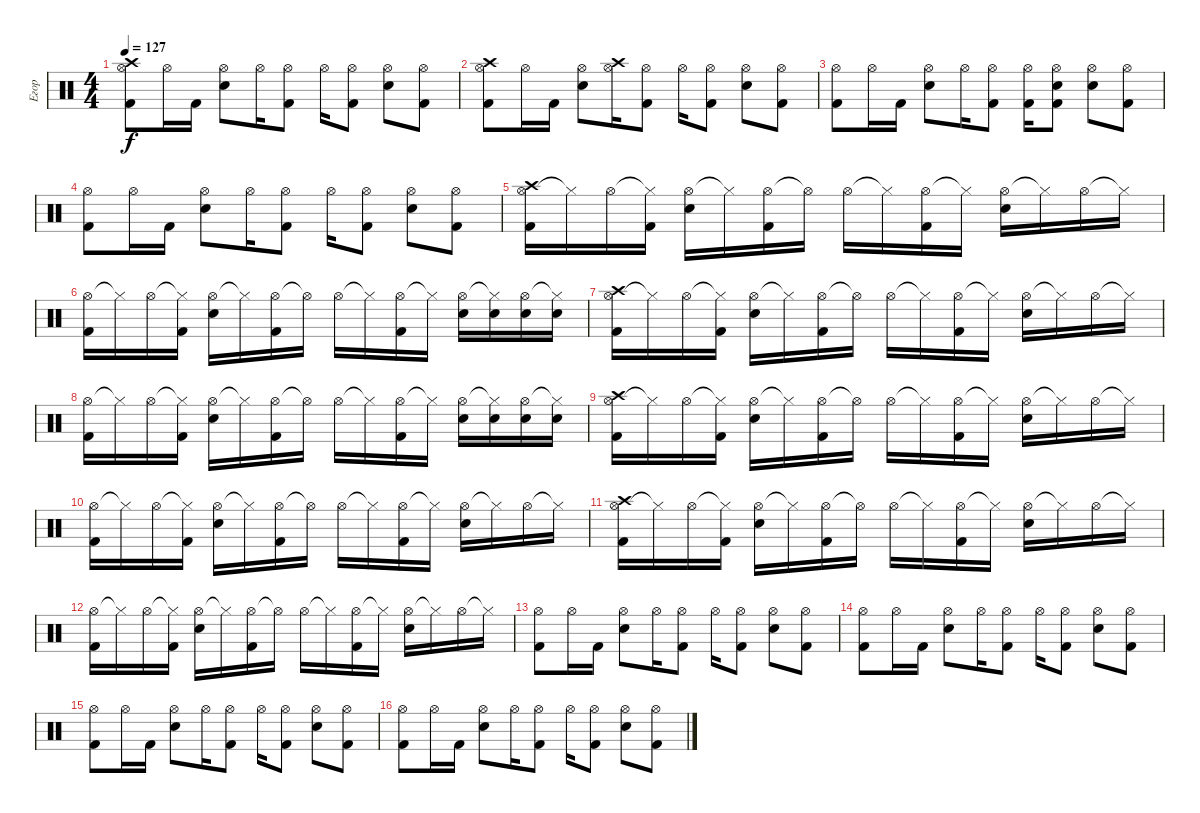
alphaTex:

\track ("Егор" "Егор") {instrument percussion}
\staff {score}
\articulation defaults
\ts (4 4)
\tempo 127
\clef neutral
\ks c
("Hi-Hat (open)" "Crash high (hit)" "Kick (hit) 2").8{dy f} "Hi-Hat (open)".16 "Kick (hit) 2".16 ("Hi-Hat (open)" "Electric Snare (hit)").8 "Hi-Hat (open)".16 ("Hi-Hat (open)" "Kick (hit) 2").8 "Hi-Hat (open)".16 ("Hi-Hat (open)" "Kick (hit) 2").8 ("Hi-Hat (open)" "Electric Snare (hit)").8 ("Hi-Hat (open)" "Kick (hit) 2").8 |
("Hi-Hat (open)" "Crash high (hit)" "Kick (hit) 2").8 "Hi-Hat (open)".16 "Kick (hit) 2".16 ("Hi-Hat (open)" "Electric Snare (hit)").8 ("Hi-Hat (open)" "Crash high (hit)").16 ("Hi-Hat (open)" "Kick (hit) 2").8 "Hi-Hat (open)".16 ("Hi-Hat (open)" "Kick (hit) 2").8 ("Hi-Hat (open)" "Electric Snare (hit)").8 ("Hi-Hat (open)" "Kick (hit) 2").8 |
("Hi-Hat (open)" "Kick (hit) 2").8 "Hi-Hat (open)".16 "Kick (hit) 2".16 ("Hi-Hat (open)" "Electric Snare (hit)").8 "Hi-Hat (open)".16 ("Hi-Hat (open)" "Kick (hit) 2").8 ("Hi-Hat (open)" "Kick (hit) 2").16 ("Hi-Hat (open)" "Electric Snare (hit)" "Kick (hit) 2").8 ("Hi-Hat (open)" "Electric Snare (hit)").8 ("Hi-Hat (open)" "Kick (hit) 2").8 |
("Hi-Hat (open)" "Kick (hit) 2").8 "Hi-Hat (open)".16 "Kick (hit) 2".16 ("Hi-Hat (open)" "Electric Snare (hit)").8 "Hi-Hat (open)".16 ("Hi-Hat (open)" "Kick (hit) 2").8 "Hi-Hat (open)".16 ("Hi-Hat (open)" "Kick (hit) 2").8 ("Hi-Hat (open)" "Electric Snare (hit)").8 ("Hi-Hat (open)" "Kick (hit) 2").8 |
("Hi-Hat (open)" "Crash high (hit)" "Kick (hit) 2").16 "Hi-Hat (closed)"{t}.16 "Hi-Hat (open)".16 ("Hi-Hat (closed)"{t} "Kick (hit) 2").16 ("Hi-Hat (open)" "Electric Snare (hit)").16 "Hi-Hat (closed)"{t}.16 ("Hi-Hat (open)" "Kick (hit) 2").16 "Hi-Hat (open)"{t}.16 "Hi-Hat (open)".16 "Hi-Hat (closed)"{t}.16 ("Hi-Hat (open)" "Kick (hit) 2").16 "Hi-Hat (closed)"{t}.16 ("Hi-Hat (open)" "Electric Snare (hit)").16 "Hi-Hat (closed)"{t}.16 "Hi-Hat (open)".16 "Hi-Hat (closed)"{t}.16 |
("Hi-Hat (open)" "Kick (hit) 2").16 "Hi-Hat (closed)"{t}.16 "Hi-Hat (open)".16 ("Hi-Hat (closed)"{t} "Kick (hit) 2").16 ("Hi-Hat (open)" "Electric Snare (hit)").16 "Hi-Hat (closed)"{t}.16 ("Hi-Hat (open)" "Kick (hit) 2").16 "Hi-Hat (open)"{t}.16 "Hi-Hat (open)".16 "Hi-Hat (closed)"{t}.16 ("Hi-Hat (open)" "Kick (hit) 2").16 "Hi-Hat (closed)"{t}.16 ("Hi-Hat (open)" "Electric Snare (hit)").16 ("Hi-Hat (closed)"{t} "Electric Snare (hit)").16 ("Hi-Hat (open)" "Electric Snare (hit)").16 ("Hi-Hat (closed)"{t} "Electric Snare (hit)").16 |
("Hi-Hat (open)" "Crash high (hit)" "Kick (hit) 2").16 "Hi-Hat (closed)"{t}.16 "Hi-Hat (open)".16 ("Hi-Hat (closed)"{t} "Kick (hit) 2").16 ("Hi-Hat (open)" "Electric Snare (hit)").16 "Hi-Hat (closed)"{t}.16 ("Hi-Hat (open)" "Kick (hit) 2").16 "Hi-Hat (open)"{t}.16 "Hi-Hat (open)".16 "Hi-Hat (closed)"{t}.16 ("Hi-Hat (open)" "Kick (hit) 2").16 "Hi-Hat (closed)"{t}.16 ("Hi-Hat (open)" "Electric Snare (hit)").16 "Hi-Hat (closed)"{t}.16 "Hi-Hat (open)".16 "Hi-Hat (closed)"{t}.16 |
("Hi-Hat (open)" "Kick (hit) 2").16 "Hi-Hat (closed)"{t}.16 "Hi-Hat (open)".16 ("Hi-Hat (closed)"{t} "Kick (hit) 2").16 ("Hi-Hat (open)" "Electric Snare (hit)").16 "Hi-Hat (closed)"{t}.16 ("Hi-Hat (open)" "Kick (hit) 2").16 "Hi-Hat (open)"{t}.16 "Hi-Hat (open)".16 "Hi-Hat (closed)"{t}.16 ("Hi-Hat (open)" "Kick (hit) 2").16 "Hi-Hat (closed)"{t}.16 ("Hi-Hat (open)" "Electric Snare (hit)").16 ("Hi-Hat (closed)"{t} "Electric Snare (hit)").16 ("Hi-Hat (open)" "Electric Snare (hit)").16 ("Hi-Hat (closed)"{t} "Electric Snare (hit)").16 |
("Hi-Hat (open)" "Crash high (hit)" "Kick (hit) 2").16 "Hi-Hat (closed)"{t}.16 "Hi-Hat (open)".16 ("Hi-Hat (closed)"{t} "Kick (hit) 2").16 ("Hi-Hat (open)" "Electric Snare (hit)").16 "Hi-Hat (closed)"{t}.16 ("Hi-Hat (open)" "Kick (hit) 2").16 "Hi-Hat (open)"{t}.16 "Hi-Hat (open)".16 "Hi-Hat (closed)"{t}.16 ("Hi-Hat (open)" "Kick (hit) 2").16 "Hi-Hat (closed)"{t}.16 ("Hi-Hat (open)" "Electric Snare (hit)").16 "Hi-Hat (closed)"{t}.16 "Hi-Hat (open)".16 "Hi-Hat (closed)"{t}.16 |
("Hi-Hat (open)" "Kick (hit) 2").16 "Hi-Hat (closed)"{t}.16 "Hi-Hat (open)".16 ("Hi-Hat (closed)"{t} "Kick (hit) 2").16 ("Hi-Hat (open)" "Electric Snare (hit)").16 "Hi-Hat (closed)"{t}.16 ("Hi-Hat (open)" "Kick (hit) 2").16 "Hi-Hat (open)"{t}.16 "Hi-Hat (open)".16 "Hi-Hat (closed)"{t}.16 ("Hi-Hat (open)" "Kick (hit) 2").16 "Hi-Hat (closed)"{t}.16 ("Hi-Hat (open)" "Electric Snare (hit)").16 "Hi-Hat (closed)"{t}.16 "Hi-Hat (open)".16 "Hi-Hat (closed)"{t}.16 |
("Hi-Hat (open)" "Crash high (hit)" "Kick (hit) 2").16 "Hi-Hat (closed)"{t}.16 "Hi-Hat (open)".16 ("Hi-Hat (closed)"{t} "Kick (hit) 2").16 ("Hi-Hat (open)" "Electric Snare (hit)").16 "Hi-Hat (closed)"{t}.16 ("Hi-Hat (open)" "Kick (hit) 2").16 "Hi-Hat (open)"{t}.16 "Hi-Hat (open)".16 "Hi-Hat (closed)"{t}.16 ("Hi-Hat (open)" "Kick (hit) 2").16 "Hi-Hat (closed)"{t}.16 ("Hi-Hat (open)" "Electric Snare (hit)").16 "Hi-Hat (closed)"{t}.16 "Hi-Hat (open)".16 "Hi-Hat (closed)"{t}.16 |
("Hi-Hat (open)" "Kick (hit) 2").16 "Hi-Hat (closed)"{t}.16 "Hi-Hat (open)".16 ("Hi-Hat (closed)"{t} "Kick (hit) 2").16 ("Hi-Hat (open)" "Electric Snare (hit)").16 "Hi-Hat (closed)"{t}.16 ("Hi-Hat (open)" "Kick (hit) 2").16 "Hi-Hat (open)"{t}.16 "Hi-Hat (open)".16 "Hi-Hat (closed)"{t}.16 ("Hi-Hat (open)" "Kick (hit) 2").16 "Hi-Hat (closed)"{t}.16 ("Hi-Hat (open)" "Electric Snare (hit)").16 "Hi-Hat (closed)"{t}.16 "Hi-Hat (open)".16 "Hi-Hat (closed)"{t}.16 |
("Hi-Hat (open)" "Kick (hit) 2").8 "Hi-Hat (open)".16 "Kick (hit) 2".16 ("Hi-Hat (open)" "Electric Snare (hit)").8 "Hi-Hat (open)".16 ("Hi-Hat (open)" "Kick (hit) 2").8 "Hi-Hat (open)".16 ("Hi-Hat (open)" "Kick (hit) 2").8 ("Hi-Hat (open)" "Electric Snare (hit)").8 ("Hi-Hat (open)" "Kick (hit) 2").8 |
("Hi-Hat (open)" "Kick (hit) 2").8 "Hi-Hat (open)".16 "Kick (hit) 2".16 ("Hi-Hat (open)" "Electric Snare (hit)").8 "Hi-Hat (open)".16 ("Hi-Hat (open)" "Kick (hit) 2").8 "Hi-Hat (open)".16 ("Hi-Hat (open)" "Kick (hit) 2").8 ("Hi-Hat (open)" "Electric Snare (hit)").8 ("Hi-Hat (open)" "Kick (hit) 2").8 |
("Hi-Hat (open)" "Kick (hit) 2").8 "Hi-Hat (open)".16 "Kick (hit) 2".16 ("Hi-Hat (open)" "Electric Snare (hit)").8 "Hi-Hat (open)".16 ("Hi-Hat (open)" "Kick (hit) 2").8 "Hi-Hat (open)".16 ("Hi-Hat (open)" "Kick (hit) 2").8 ("Hi-Hat (open)" "Electric Snare (hit)").8 ("Hi-Hat (open)" "Kick (hit) 2").8 |
("Hi-Hat (open)" "Kick (hit) 2").8 "Hi-Hat (open)".16 "Kick (hit) 2".16 ("Hi-Hat (open)" "Electric Snare (hit)").8 "Hi-Hat (open)".16 ("Hi-Hat (open)" "Kick (hit) 2").8 "Hi-Hat (open)".16 ("Hi-Hat (open)" "Kick (hit) 2").8 ("Hi-Hat (open)" "Electric Snare (hit)").8 ("Hi-Hat (open)" "Kick (hit) 2").8
